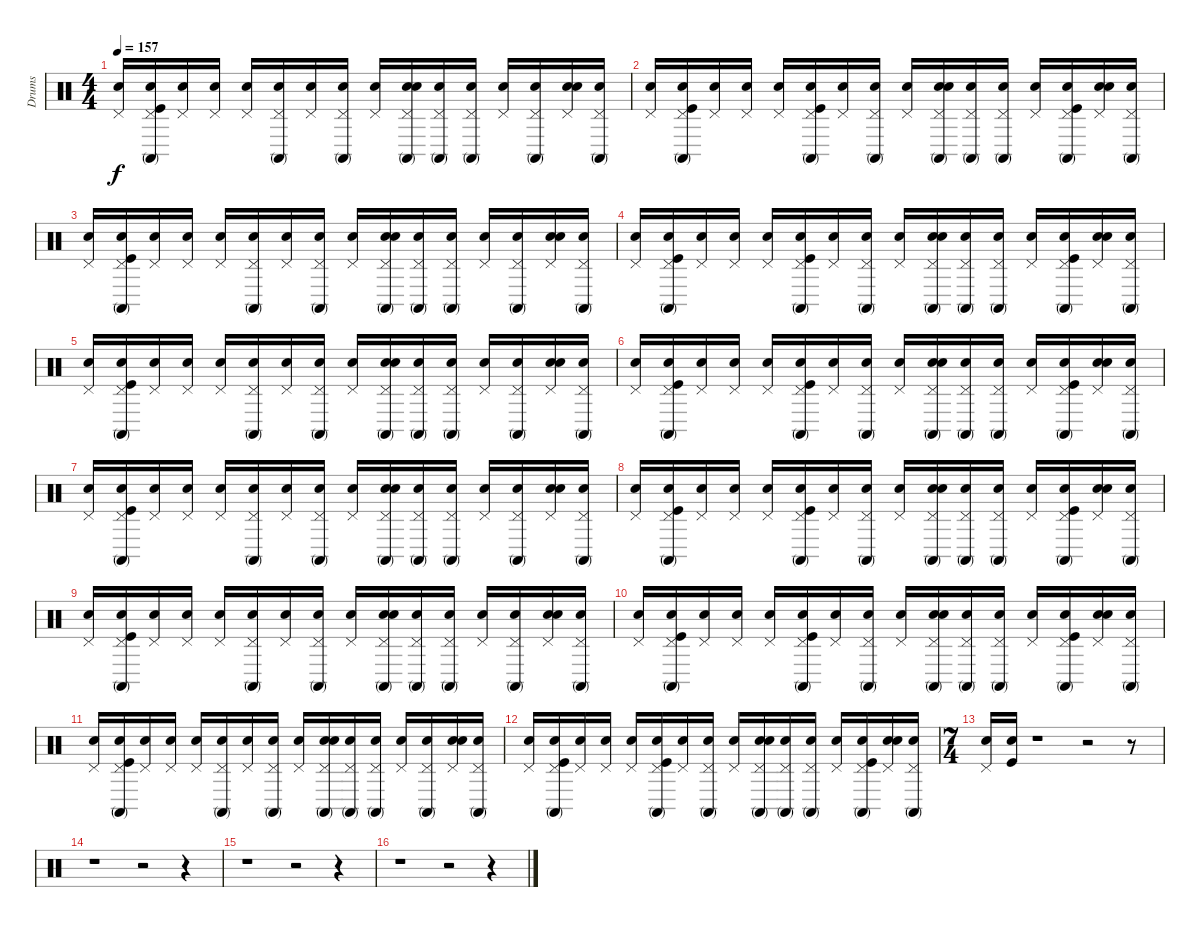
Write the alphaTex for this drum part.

\track ("Drums" "Drums") {instrument percussion}
\staff {score}
\articulation defaults
\ts (4 4)
\tempo 157
\clef neutral
\ks c
("Snare (hit)" "Pedal Hi-Hat (hit)").16{dy f} ("Snare (hit)" "Pedal Hi-Hat (hit)" "Conga high (mute)" "Kick (hit)").16 ("Snare (hit)" "Pedal Hi-Hat (hit)").16 ("Snare (hit)" "Pedal Hi-Hat (hit)").16 ("Snare (hit)" "Pedal Hi-Hat (hit)").16 ("Snare (hit)" "Conga high (mute)" "Pedal Hi-Hat (hit)").16 ("Snare (hit)" "Pedal Hi-Hat (hit)").16 ("Snare (hit)" "Pedal Hi-Hat (hit)" "Conga high (mute)").16 ("Snare (hit)" "Pedal Hi-Hat (hit)").16 ("Snare (hit)" "Conga high (mute)" "Snare (hit) 2" "Pedal Hi-Hat (hit)").16 ("Snare (hit)" "Pedal Hi-Hat (hit)" "Conga high (mute)").16 ("Snare (hit)" "Pedal Hi-Hat (hit)" "Conga high (mute)").16 ("Snare (hit)" "Pedal Hi-Hat (hit)").16 ("Snare (hit)" "Conga high (mute)" "Pedal Hi-Hat (hit)").16 ("Snare (hit)" "Snare (hit) 2" "Pedal Hi-Hat (hit)").16 ("Snare (hit)" "Conga high (mute)" "Pedal Hi-Hat (hit)").16 |
("Snare (hit)" "Pedal Hi-Hat (hit)").16 ("Snare (hit)" "Conga high (mute)" "Pedal Hi-Hat (hit)" "Kick (hit)").16 ("Snare (hit)" "Pedal Hi-Hat (hit)").16 ("Snare (hit)" "Pedal Hi-Hat (hit)").16 ("Snare (hit)" "Pedal Hi-Hat (hit)").16 ("Snare (hit)" "Pedal Hi-Hat (hit)" "Conga high (mute)" "Kick (hit)").16 ("Snare (hit)" "Pedal Hi-Hat (hit)").16 ("Snare (hit)" "Conga high (mute)" "Pedal Hi-Hat (hit)").16 ("Snare (hit)" "Pedal Hi-Hat (hit)").16 ("Snare (hit)" "Snare (hit) 2" "Pedal Hi-Hat (hit)" "Conga high (mute)").16 ("Snare (hit)" "Pedal Hi-Hat (hit)" "Conga high (mute)").16 ("Snare (hit)" "Conga high (mute)" "Pedal Hi-Hat (hit)").16 ("Snare (hit)" "Pedal Hi-Hat (hit)").16 ("Snare (hit)" "Conga high (mute)" "Pedal Hi-Hat (hit)" "Kick (hit)").16 ("Snare (hit)" "Pedal Hi-Hat (hit)" "Snare (hit) 2").16 ("Snare (hit)" "Pedal Hi-Hat (hit)" "Conga high (mute)").16 |
("Snare (hit)" "Pedal Hi-Hat (hit)").16 ("Snare (hit)" "Kick (hit)" "Pedal Hi-Hat (hit)" "Conga high (mute)").16 ("Snare (hit)" "Pedal Hi-Hat (hit)").16 ("Snare (hit)" "Pedal Hi-Hat (hit)").16 ("Snare (hit)" "Pedal Hi-Hat (hit)").16 ("Snare (hit)" "Pedal Hi-Hat (hit)" "Conga high (mute)").16 ("Snare (hit)" "Pedal Hi-Hat (hit)").16 ("Snare (hit)" "Conga high (mute)" "Pedal Hi-Hat (hit)").16 ("Snare (hit)" "Pedal Hi-Hat (hit)").16 ("Snare (hit)" "Snare (hit) 2" "Conga high (mute)" "Pedal Hi-Hat (hit)").16 ("Snare (hit)" "Pedal Hi-Hat (hit)" "Conga high (mute)").16 ("Snare (hit)" "Pedal Hi-Hat (hit)" "Conga high (mute)").16 ("Snare (hit)" "Pedal Hi-Hat (hit)").16 ("Snare (hit)" "Conga high (mute)" "Pedal Hi-Hat (hit)").16 ("Snare (hit)" "Pedal Hi-Hat (hit)" "Snare (hit) 2").16 ("Snare (hit)" "Pedal Hi-Hat (hit)" "Conga high (mute)").16 |
("Snare (hit)" "Pedal Hi-Hat (hit)").16 ("Snare (hit)" "Kick (hit)" "Pedal Hi-Hat (hit)" "Conga high (mute)").16 ("Snare (hit)" "Pedal Hi-Hat (hit)").16 ("Snare (hit)" "Pedal Hi-Hat (hit)").16 ("Snare (hit)" "Pedal Hi-Hat (hit)").16 ("Snare (hit)" "Pedal Hi-Hat (hit)" "Kick (hit)" "Conga high (mute)").16 ("Snare (hit)" "Pedal Hi-Hat (hit)").16 ("Snare (hit)" "Pedal Hi-Hat (hit)" "Conga high (mute)").16 ("Snare (hit)" "Pedal Hi-Hat (hit)").16 ("Snare (hit)" "Conga high (mute)" "Pedal Hi-Hat (hit)" "Snare (hit) 2").16 ("Snare (hit)" "Conga high (mute)" "Pedal Hi-Hat (hit)").16 ("Snare (hit)" "Conga high (mute)" "Pedal Hi-Hat (hit)").16 ("Snare (hit)" "Pedal Hi-Hat (hit)").16 ("Snare (hit)" "Conga high (mute)" "Kick (hit)" "Pedal Hi-Hat (hit)").16 ("Snare (hit)" "Pedal Hi-Hat (hit)" "Snare (hit) 2").16 ("Snare (hit)" "Conga high (mute)" "Pedal Hi-Hat (hit)").16 |
("Snare (hit)" "Pedal Hi-Hat (hit)").16 ("Snare (hit)" "Pedal Hi-Hat (hit)" "Kick (hit)" "Conga high (mute)").16 ("Snare (hit)" "Pedal Hi-Hat (hit)").16 ("Snare (hit)" "Pedal Hi-Hat (hit)").16 ("Snare (hit)" "Pedal Hi-Hat (hit)").16 ("Snare (hit)" "Pedal Hi-Hat (hit)" "Conga high (mute)").16 ("Snare (hit)" "Pedal Hi-Hat (hit)").16 ("Snare (hit)" "Pedal Hi-Hat (hit)" "Conga high (mute)").16 ("Snare (hit)" "Pedal Hi-Hat (hit)").16 ("Snare (hit)" "Conga high (mute)" "Pedal Hi-Hat (hit)" "Snare (hit) 2").16 ("Snare (hit)" "Conga high (mute)" "Pedal Hi-Hat (hit)").16 ("Snare (hit)" "Conga high (mute)" "Pedal Hi-Hat (hit)").16 ("Snare (hit)" "Pedal Hi-Hat (hit)").16 ("Snare (hit)" "Conga high (mute)" "Pedal Hi-Hat (hit)").16 ("Snare (hit)" "Snare (hit) 2" "Pedal Hi-Hat (hit)").16 ("Snare (hit)" "Pedal Hi-Hat (hit)" "Conga high (mute)").16 |
("Snare (hit)" "Pedal Hi-Hat (hit)").16 ("Snare (hit)" "Pedal Hi-Hat (hit)" "Conga high (mute)" "Kick (hit)").16 ("Snare (hit)" "Pedal Hi-Hat (hit)").16 ("Snare (hit)" "Pedal Hi-Hat (hit)").16 ("Snare (hit)" "Pedal Hi-Hat (hit)").16 ("Snare (hit)" "Kick (hit)" "Conga high (mute)" "Pedal Hi-Hat (hit)").16 ("Snare (hit)" "Pedal Hi-Hat (hit)").16 ("Snare (hit)" "Pedal Hi-Hat (hit)" "Conga high (mute)").16 ("Snare (hit)" "Pedal Hi-Hat (hit)").16 ("Snare (hit)" "Snare (hit) 2" "Conga high (mute)" "Pedal Hi-Hat (hit)").16 ("Snare (hit)" "Pedal Hi-Hat (hit)" "Conga high (mute)").16 ("Snare (hit)" "Pedal Hi-Hat (hit)" "Conga high (mute)").16 ("Snare (hit)" "Pedal Hi-Hat (hit)").16 ("Snare (hit)" "Kick (hit)" "Pedal Hi-Hat (hit)" "Conga high (mute)").16 ("Snare (hit)" "Pedal Hi-Hat (hit)" "Snare (hit) 2").16 ("Snare (hit)" "Conga high (mute)" "Pedal Hi-Hat (hit)").16 |
("Snare (hit)" "Pedal Hi-Hat (hit)").16 ("Snare (hit)" "Conga high (mute)" "Kick (hit)" "Pedal Hi-Hat (hit)").16 ("Snare (hit)" "Pedal Hi-Hat (hit)").16 ("Snare (hit)" "Pedal Hi-Hat (hit)").16 ("Snare (hit)" "Pedal Hi-Hat (hit)").16 ("Snare (hit)" "Pedal Hi-Hat (hit)" "Conga high (mute)").16 ("Snare (hit)" "Pedal Hi-Hat (hit)").16 ("Snare (hit)" "Pedal Hi-Hat (hit)" "Conga high (mute)").16 ("Snare (hit)" "Pedal Hi-Hat (hit)").16 ("Snare (hit)" "Pedal Hi-Hat (hit)" "Snare (hit) 2" "Conga high (mute)").16 ("Snare (hit)" "Pedal Hi-Hat (hit)" "Conga high (mute)").16 ("Snare (hit)" "Pedal Hi-Hat (hit)" "Conga high (mute)").16 ("Snare (hit)" "Pedal Hi-Hat (hit)").16 ("Snare (hit)" "Conga high (mute)" "Pedal Hi-Hat (hit)").16 ("Snare (hit)" "Snare (hit) 2" "Pedal Hi-Hat (hit)").16 ("Snare (hit)" "Pedal Hi-Hat (hit)" "Conga high (mute)").16 |
("Snare (hit)" "Pedal Hi-Hat (hit)").16 ("Snare (hit)" "Pedal Hi-Hat (hit)" "Kick (hit)" "Conga high (mute)").16 ("Snare (hit)" "Pedal Hi-Hat (hit)").16 ("Snare (hit)" "Pedal Hi-Hat (hit)").16 ("Snare (hit)" "Pedal Hi-Hat (hit)").16 ("Snare (hit)" "Kick (hit)" "Conga high (mute)" "Pedal Hi-Hat (hit)").16 ("Snare (hit)" "Pedal Hi-Hat (hit)").16 ("Snare (hit)" "Pedal Hi-Hat (hit)" "Conga high (mute)").16 ("Snare (hit)" "Pedal Hi-Hat (hit)").16 ("Snare (hit)" "Snare (hit) 2" "Conga high (mute)" "Pedal Hi-Hat (hit)").16 ("Snare (hit)" "Conga high (mute)" "Pedal Hi-Hat (hit)").16 ("Snare (hit)" "Conga high (mute)" "Pedal Hi-Hat (hit)").16 ("Snare (hit)" "Pedal Hi-Hat (hit)").16 ("Snare (hit)" "Conga high (mute)" "Kick (hit)" "Pedal Hi-Hat (hit)").16 ("Snare (hit)" "Snare (hit) 2" "Pedal Hi-Hat (hit)").16 ("Snare (hit)" "Conga high (mute)" "Pedal Hi-Hat (hit)").16 |
("Snare (hit)" "Pedal Hi-Hat (hit)").16 ("Snare (hit)" "Conga high (mute)" "Kick (hit)" "Pedal Hi-Hat (hit)").16 ("Snare (hit)" "Pedal Hi-Hat (hit)").16 ("Snare (hit)" "Pedal Hi-Hat (hit)").16 ("Snare (hit)" "Pedal Hi-Hat (hit)").16 ("Snare (hit)" "Pedal Hi-Hat (hit)" "Conga high (mute)").16 ("Snare (hit)" "Pedal Hi-Hat (hit)").16 ("Snare (hit)" "Pedal Hi-Hat (hit)" "Conga high (mute)").16 ("Snare (hit)" "Pedal Hi-Hat (hit)").16 ("Snare (hit)" "Snare (hit) 2" "Pedal Hi-Hat (hit)" "Conga high (mute)").16 ("Snare (hit)" "Pedal Hi-Hat (hit)" "Conga high (mute)").16 ("Snare (hit)" "Pedal Hi-Hat (hit)" "Conga high (mute)").16 ("Snare (hit)" "Pedal Hi-Hat (hit)").16 ("Snare (hit)" "Pedal Hi-Hat (hit)" "Conga high (mute)").16 ("Snare (hit)" "Snare (hit) 2" "Pedal Hi-Hat (hit)").16 ("Snare (hit)" "Pedal Hi-Hat (hit)" "Conga high (mute)").16 |
("Snare (hit)" "Pedal Hi-Hat (hit)").16 ("Snare (hit)" "Pedal Hi-Hat (hit)" "Conga high (mute)" "Kick (hit)").16 ("Snare (hit)" "Pedal Hi-Hat (hit)").16 ("Snare (hit)" "Pedal Hi-Hat (hit)").16 ("Snare (hit)" "Pedal Hi-Hat (hit)").16 ("Snare (hit)" "Conga high (mute)" "Kick (hit)" "Pedal Hi-Hat (hit)").16 ("Snare (hit)" "Pedal Hi-Hat (hit)").16 ("Snare (hit)" "Conga high (mute)" "Pedal Hi-Hat (hit)").16 ("Snare (hit)" "Pedal Hi-Hat (hit)").16 ("Snare (hit)" "Pedal Hi-Hat (hit)" "Snare (hit) 2" "Conga high (mute)").16 ("Snare (hit)" "Pedal Hi-Hat (hit)" "Conga high (mute)").16 ("Snare (hit)" "Conga high (mute)" "Pedal Hi-Hat (hit)").16 ("Snare (hit)" "Pedal Hi-Hat (hit)").16 ("Snare (hit)" "Pedal Hi-Hat (hit)" "Kick (hit)" "Conga high (mute)").16 ("Snare (hit)" "Snare (hit) 2" "Pedal Hi-Hat (hit)").16 ("Snare (hit)" "Conga high (mute)" "Pedal Hi-Hat (hit)").16 |
("Snare (hit)" "Pedal Hi-Hat (hit)").16 ("Snare (hit)" "Pedal Hi-Hat (hit)" "Conga high (mute)" "Kick (hit)").16 ("Snare (hit)" "Pedal Hi-Hat (hit)").16 ("Snare (hit)" "Pedal Hi-Hat (hit)").16 ("Snare (hit)" "Pedal Hi-Hat (hit)").16 ("Snare (hit)" "Pedal Hi-Hat (hit)" "Conga high (mute)").16 ("Snare (hit)" "Pedal Hi-Hat (hit)").16 ("Snare (hit)" "Conga high (mute)" "Pedal Hi-Hat (hit)").16 ("Snare (hit)" "Pedal Hi-Hat (hit)").16 ("Snare (hit)" "Conga high (mute)" "Pedal Hi-Hat (hit)" "Snare (hit) 2").16 ("Snare (hit)" "Conga high (mute)" "Pedal Hi-Hat (hit)").16 ("Snare (hit)" "Conga high (mute)" "Pedal Hi-Hat (hit)").16 ("Snare (hit)" "Pedal Hi-Hat (hit)").16 ("Snare (hit)" "Pedal Hi-Hat (hit)" "Conga high (mute)").16 ("Snare (hit)" "Snare (hit) 2" "Pedal Hi-Hat (hit)").16 ("Snare (hit)" "Conga high (mute)" "Pedal Hi-Hat (hit)").16 |
("Snare (hit)" "Pedal Hi-Hat (hit)").16 ("Snare (hit)" "Pedal Hi-Hat (hit)" "Conga high (mute)" "Kick (hit)").16 ("Snare (hit)" "Pedal Hi-Hat (hit)").16 ("Snare (hit)" "Pedal Hi-Hat (hit)").16 ("Snare (hit)" "Pedal Hi-Hat (hit)").16 ("Snare (hit)" "Conga high (mute)" "Kick (hit)" "Pedal Hi-Hat (hit)").16 ("Snare (hit)" "Pedal Hi-Hat (hit)").16 ("Snare (hit)" "Conga high (mute)" "Pedal Hi-Hat (hit)").16 ("Snare (hit)" "Pedal Hi-Hat (hit)").16 ("Snare (hit)" "Conga high (mute)" "Snare (hit) 2" "Pedal Hi-Hat (hit)").16 ("Snare (hit)" "Conga high (mute)" "Pedal Hi-Hat (hit)").16 ("Snare (hit)" "Conga high (mute)" "Pedal Hi-Hat (hit)").16 ("Snare (hit)" "Pedal Hi-Hat (hit)").16 ("Snare (hit)" "Pedal Hi-Hat (hit)" "Kick (hit)" "Conga high (mute)").16 ("Snare (hit)" "Pedal Hi-Hat (hit)" "Snare (hit) 2").16 ("Snare (hit)" "Conga high (mute)" "Pedal Hi-Hat (hit)").16 |
\ts (7 4)
("Snare (hit)" "Pedal Hi-Hat (hit)").16 ("Snare (hit)" "Kick (hit)").16 r.1 r.2 r.8 |
r.1 r.2 r.4 |
r.1 r.2 r.4 |
r.1 r.2 r.4
